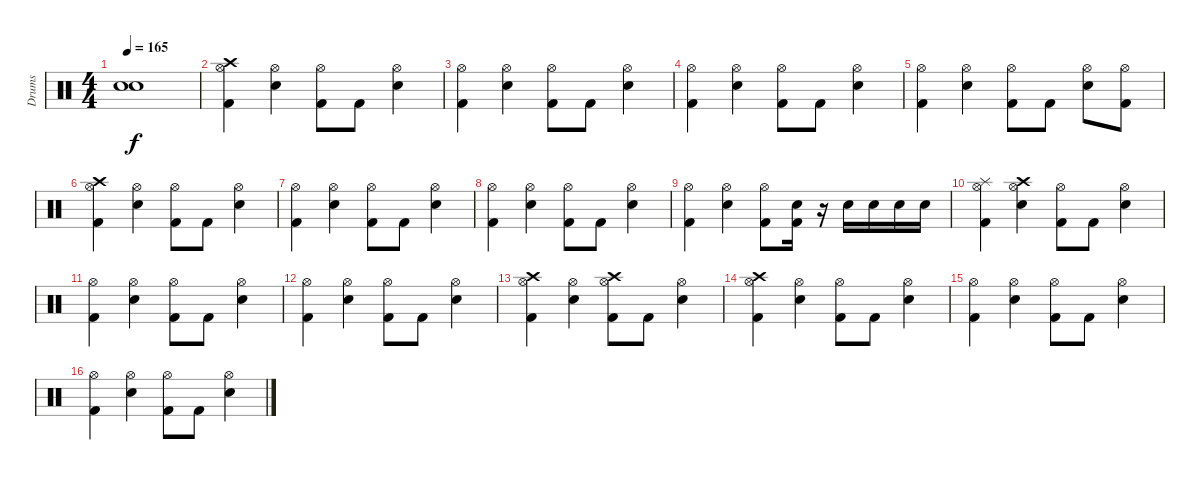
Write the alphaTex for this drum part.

\track ("Drums" "Drums") {instrument percussion}
\staff {score}
\articulation defaults
\ts (4 4)
\tempo 165
\clef neutral
\ks c
("Snare (hit) 2" "Snare (hit) 2").1{dy f} |
("Kick (hit) 2" "Hi-Hat (open)" "Crash high (hit)").4 ("Hi-Hat (open)" "Snare (hit) 2").4 ("Hi-Hat (open)" "Kick (hit) 2").8 "Kick (hit) 2".8 ("Hi-Hat (open)" "Snare (hit) 2").4 |
("Kick (hit) 2" "Hi-Hat (open)").4 ("Hi-Hat (open)" "Snare (hit) 2").4 ("Hi-Hat (open)" "Kick (hit) 2").8 "Kick (hit) 2".8 ("Hi-Hat (open)" "Snare (hit) 2").4 |
("Kick (hit) 2" "Hi-Hat (open)").4 ("Hi-Hat (open)" "Snare (hit) 2").4 ("Hi-Hat (open)" "Kick (hit) 2").8 "Kick (hit) 2".8 ("Hi-Hat (open)" "Snare (hit) 2").4 |
("Kick (hit) 2" "Hi-Hat (open)").4 ("Hi-Hat (open)" "Snare (hit) 2").4 ("Hi-Hat (open)" "Kick (hit) 2").8 "Kick (hit) 2".8 ("Hi-Hat (open)" "Snare (hit) 2").8 ("Hi-Hat (open)" "Kick (hit) 2").8 |
("Kick (hit) 2" "Hi-Hat (open)" "Crash high (hit)").4 ("Hi-Hat (open)" "Snare (hit) 2").4 ("Hi-Hat (open)" "Kick (hit) 2").8 "Kick (hit) 2".8 ("Hi-Hat (open)" "Snare (hit) 2").4 |
("Kick (hit) 2" "Hi-Hat (open)").4 ("Hi-Hat (open)" "Snare (hit) 2").4 ("Hi-Hat (open)" "Kick (hit) 2").8 "Kick (hit) 2".8 ("Hi-Hat (open)" "Snare (hit) 2").4 |
("Kick (hit) 2" "Hi-Hat (open)").4 ("Hi-Hat (open)" "Snare (hit) 2").4 ("Hi-Hat (open)" "Kick (hit) 2").8 "Kick (hit) 2".8 ("Hi-Hat (open)" "Snare (hit) 2").4 |
("Kick (hit) 2" "Hi-Hat (open)").4 ("Hi-Hat (open)" "Snare (hit) 2").4 ("Hi-Hat (open)" "Kick (hit) 2").8 ("Snare (hit) 2" "Kick (hit) 2").16 r.16 "Snare (hit) 2".16 "Snare (hit) 2".16 "Snare (hit) 2".16 "Snare (hit) 2".16 |
("Splash (hit)" "Hi-Hat (open)" "Kick (hit) 2").4 ("Crash high (hit)" "Hi-Hat (open)" "Snare (hit) 2").4 ("Hi-Hat (open)" "Kick (hit) 2").8 "Kick (hit) 2".8 ("Hi-Hat (open)" "Snare (hit) 2").4 |
("Kick (hit) 2" "Hi-Hat (open)").4 ("Hi-Hat (open)" "Snare (hit) 2").4 ("Hi-Hat (open)" "Kick (hit) 2").8 "Kick (hit) 2".8 ("Hi-Hat (open)" "Snare (hit) 2").4 |
("Kick (hit) 2" "Hi-Hat (open)").4 ("Hi-Hat (open)" "Snare (hit) 2").4 ("Hi-Hat (open)" "Kick (hit) 2").8 "Kick (hit) 2".8 ("Hi-Hat (open)" "Snare (hit) 2").4 |
("Crash high (hit)" "Hi-Hat (open)" "Kick (hit) 2").4 ("Hi-Hat (open)" "Snare (hit) 2").4 ("Crash high (hit)" "Hi-Hat (open)" "Kick (hit) 2").8 "Kick (hit) 2".8 ("Hi-Hat (open)" "Snare (hit) 2").4 |
("Crash high (hit)" "Hi-Hat (open)" "Kick (hit) 2").4 ("Hi-Hat (open)" "Snare (hit) 2").4 ("Hi-Hat (open)" "Kick (hit) 2").8 "Kick (hit) 2".8 ("Hi-Hat (open)" "Snare (hit) 2").4 |
("Kick (hit) 2" "Hi-Hat (open)").4 ("Hi-Hat (open)" "Snare (hit) 2").4 ("Hi-Hat (open)" "Kick (hit) 2").8 "Kick (hit) 2".8 ("Hi-Hat (open)" "Snare (hit) 2").4 |
("Kick (hit) 2" "Hi-Hat (open)").4 ("Hi-Hat (open)" "Snare (hit) 2").4 ("Hi-Hat (open)" "Kick (hit) 2").8 "Kick (hit) 2".8 ("Hi-Hat (open)" "Snare (hit) 2").4
